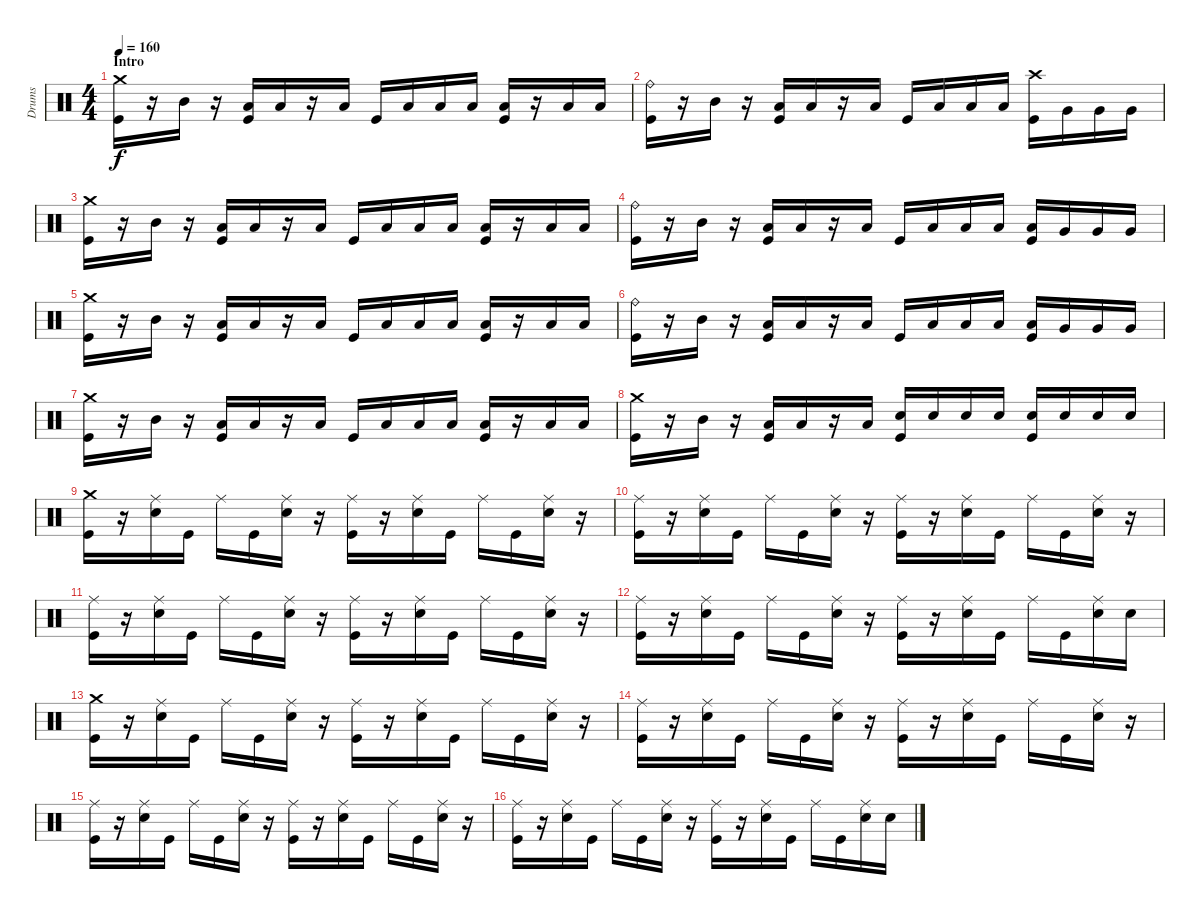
\track ("Drums" "Drums") {instrument percussion}
\staff {score}
\articulation defaults
\ts (4 4)
\section ("" "Intro")
\tempo 160
\clef neutral
\ks c
("Crash medium (hit)" "Kick (hit)").16{dy f} r.16 "Mid Tom (hit)".16 r.16 ("Low Tom (hit)" "Kick (hit)").16 "Low Tom (hit)".16 r.16 "Low Tom (hit)".16 "Kick (hit)".16 "Low Tom (hit)".16 "Low Tom (hit)".16 "Low Tom (hit)".16 ("Low Tom (hit)" "Kick (hit)").16 r.16 "Low Tom (hit)".16 "Low Tom (hit)".16 |
("Ride (bell)" "Kick (hit)").16 r.16 "Mid Tom (hit)".16 r.16 ("Low Tom (hit)" "Kick (hit)").16 "Low Tom (hit)".16 r.16 "Low Tom (hit)".16 "Kick (hit)".16 "Low Tom (hit)".16 "Low Tom (hit)".16 "Low Tom (hit)".16 ("Crash high (hit)" "Kick (hit)").16 "Very Low Tom (hit)".16 "Very Low Tom (hit)".16 "Very Low Tom (hit)".16 |
("Crash medium (hit)" "Kick (hit)").16 r.16 "Mid Tom (hit)".16 r.16 ("Low Tom (hit)" "Kick (hit)").16 "Low Tom (hit)".16 r.16 "Low Tom (hit)".16 "Kick (hit)".16 "Low Tom (hit)".16 "Low Tom (hit)".16 "Low Tom (hit)".16 ("Low Tom (hit)" "Kick (hit)").16 r.16 "Low Tom (hit)".16 "Low Tom (hit)".16 |
("Ride (bell)" "Kick (hit)").16 r.16 "Mid Tom (hit)".16 r.16 ("Low Tom (hit)" "Kick (hit)").16 "Low Tom (hit)".16 r.16 "Low Tom (hit)".16 "Kick (hit)".16 "Low Tom (hit)".16 "Low Tom (hit)".16 "Low Tom (hit)".16 ("Low Tom (hit)" "Kick (hit)").16 "Very Low Tom (hit)".16 "Very Low Tom (hit)".16 "Very Low Tom (hit)".16 |
("Crash medium (hit)" "Kick (hit)").16 r.16 "Mid Tom (hit)".16 r.16 ("Low Tom (hit)" "Kick (hit)").16 "Low Tom (hit)".16 r.16 "Low Tom (hit)".16 "Kick (hit)".16 "Low Tom (hit)".16 "Low Tom (hit)".16 "Low Tom (hit)".16 ("Low Tom (hit)" "Kick (hit)").16 r.16 "Low Tom (hit)".16 "Low Tom (hit)".16 |
("Ride (bell)" "Kick (hit)").16 r.16 "Mid Tom (hit)".16 r.16 ("Low Tom (hit)" "Kick (hit)").16 "Low Tom (hit)".16 r.16 "Low Tom (hit)".16 "Kick (hit)".16 "Low Tom (hit)".16 "Low Tom (hit)".16 "Low Tom (hit)".16 ("Low Tom (hit)" "Kick (hit)").16 "Very Low Tom (hit)".16 "Very Low Tom (hit)".16 "Very Low Tom (hit)".16 |
("Crash medium (hit)" "Kick (hit)").16 r.16 "Mid Tom (hit)".16 r.16 ("Low Tom (hit)" "Kick (hit)").16 "Low Tom (hit)".16 r.16 "Low Tom (hit)".16 "Kick (hit)".16 "Low Tom (hit)".16 "Low Tom (hit)".16 "Low Tom (hit)".16 ("Low Tom (hit)" "Kick (hit)").16 r.16 "Low Tom (hit)".16 "Low Tom (hit)".16 |
("Crash medium (hit)" "Kick (hit)").16 r.16 "Mid Tom (hit)".16 r.16 ("Low Tom (hit)" "Kick (hit)").16 "Low Tom (hit)".16 r.16 "Low Tom (hit)".16 ("Electric Snare (hit)" "Kick (hit)").16 "Electric Snare (hit)".16 "Electric Snare (hit)".16 "Electric Snare (hit)".16 ("Electric Snare (hit)" "Kick (hit)").16 "Electric Snare (hit)".16 "Electric Snare (hit)".16 "Electric Snare (hit)".16 |
("Crash medium (hit)" "Kick (hit)").16 r.16 ("Ride (middle)" "Electric Snare (hit)").16 "Kick (hit)".16 "Ride (middle)".16 "Kick (hit)".16 ("Ride (middle)" "Electric Snare (hit)").16 r.16 ("Ride (middle)" "Kick (hit)").16 r.16 ("Ride (middle)" "Electric Snare (hit)").16 "Kick (hit)".16 "Ride (middle)".16 "Kick (hit)".16 ("Ride (middle)" "Electric Snare (hit)").16 r.16 |
("Ride (middle)" "Kick (hit)").16 r.16 ("Ride (middle)" "Electric Snare (hit)").16 "Kick (hit)".16 "Ride (middle)".16 "Kick (hit)".16 ("Ride (middle)" "Electric Snare (hit)").16 r.16 ("Ride (middle)" "Kick (hit)").16 r.16 ("Ride (middle)" "Electric Snare (hit)").16 "Kick (hit)".16 "Ride (middle)".16 "Kick (hit)".16 ("Ride (middle)" "Electric Snare (hit)").16 r.16 |
("Ride (middle)" "Kick (hit)").16 r.16 ("Ride (middle)" "Electric Snare (hit)").16 "Kick (hit)".16 "Ride (middle)".16 "Kick (hit)".16 ("Ride (middle)" "Electric Snare (hit)").16 r.16 ("Ride (middle)" "Kick (hit)").16 r.16 ("Ride (middle)" "Electric Snare (hit)").16 "Kick (hit)".16 "Ride (middle)".16 "Kick (hit)".16 ("Ride (middle)" "Electric Snare (hit)").16 r.16 |
("Ride (middle)" "Kick (hit)").16 r.16 ("Ride (middle)" "Electric Snare (hit)").16 "Kick (hit)".16 "Ride (middle)".16 "Kick (hit)".16 ("Ride (middle)" "Electric Snare (hit)").16 r.16 ("Ride (middle)" "Kick (hit)").16 r.16 ("Ride (middle)" "Electric Snare (hit)").16 "Kick (hit)".16 "Ride (middle)".16 "Kick (hit)".16 ("Ride (middle)" "Electric Snare (hit)").16 "Electric Snare (hit)".16 |
("Crash medium (hit)" "Kick (hit)").16 r.16 ("Ride (middle)" "Electric Snare (hit)").16 "Kick (hit)".16 "Ride (middle)".16 "Kick (hit)".16 ("Ride (middle)" "Electric Snare (hit)").16 r.16 ("Ride (middle)" "Kick (hit)").16 r.16 ("Ride (middle)" "Electric Snare (hit)").16 "Kick (hit)".16 "Ride (middle)".16 "Kick (hit)".16 ("Ride (middle)" "Electric Snare (hit)").16 r.16 |
("Ride (middle)" "Kick (hit)").16 r.16 ("Ride (middle)" "Electric Snare (hit)").16 "Kick (hit)".16 "Ride (middle)".16 "Kick (hit)".16 ("Ride (middle)" "Electric Snare (hit)").16 r.16 ("Ride (middle)" "Kick (hit)").16 r.16 ("Ride (middle)" "Electric Snare (hit)").16 "Kick (hit)".16 "Ride (middle)".16 "Kick (hit)".16 ("Ride (middle)" "Electric Snare (hit)").16 r.16 |
("Ride (middle)" "Kick (hit)").16 r.16 ("Ride (middle)" "Electric Snare (hit)").16 "Kick (hit)".16 "Ride (middle)".16 "Kick (hit)".16 ("Ride (middle)" "Electric Snare (hit)").16 r.16 ("Ride (middle)" "Kick (hit)").16 r.16 ("Ride (middle)" "Electric Snare (hit)").16 "Kick (hit)".16 "Ride (middle)".16 "Kick (hit)".16 ("Ride (middle)" "Electric Snare (hit)").16 r.16 |
("Ride (middle)" "Kick (hit)").16 r.16 ("Ride (middle)" "Electric Snare (hit)").16 "Kick (hit)".16 "Ride (middle)".16 "Kick (hit)".16 ("Ride (middle)" "Electric Snare (hit)").16 r.16 ("Ride (middle)" "Kick (hit)").16 r.16 ("Ride (middle)" "Electric Snare (hit)").16 "Kick (hit)".16 "Ride (middle)".16 "Kick (hit)".16 ("Ride (middle)" "Electric Snare (hit)").16 "Electric Snare (hit)".16
